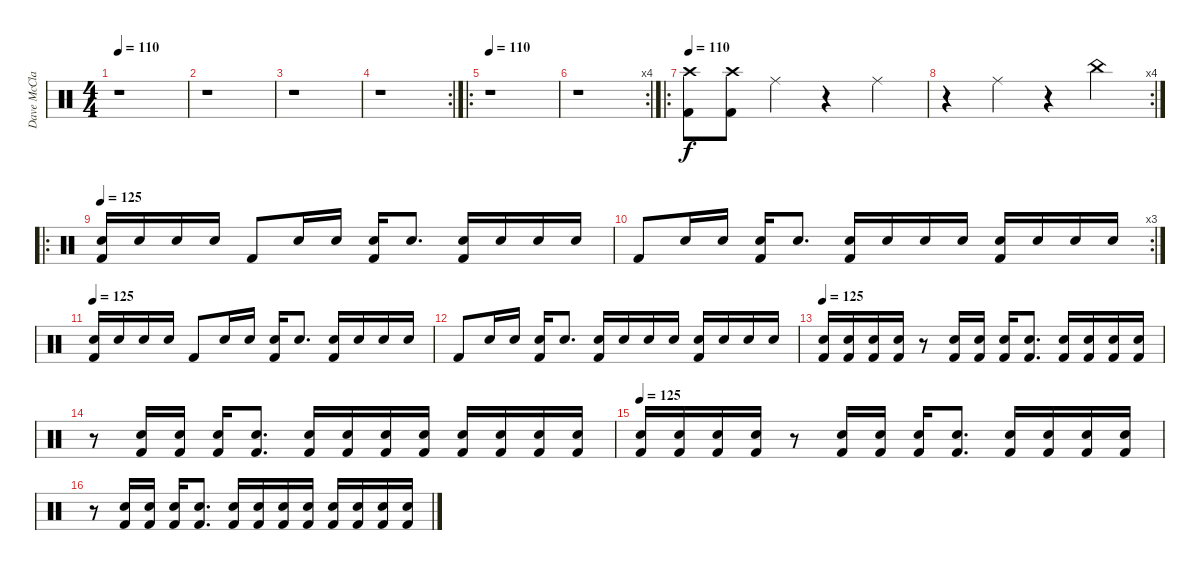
\track ("Dave McClain" "Dave McCla") {instrument percussion}
\staff {score}
\articulation defaults
\ts (4 4)
\tempo 110
\clef neutral
\ks c
r.1{dy f} |
r.1 |
r.1 |
\rc 2
r.1 |
\ro
\tempo 110
r.1 |
\rc 4
r.1 |
\ro
\tempo 110
("Crash high (hit)" "Kick (hit) 2").8 ("Crash high (hit)" "Kick (hit) 2").8 "Ride (middle)".4 r.4 "Ride (middle)".4 |
\rc 4
r.4 "Ride (middle)".4 r.4 "China (hit)".4 |
\ro
\tempo 125
("Kick (hit) 2" "Snare (hit) 2").16 "Snare (hit) 2".16 "Snare (hit) 2".16 "Snare (hit) 2".16 "Kick (hit) 2".8 "Snare (hit) 2".16 "Snare (hit) 2".16 ("Kick (hit) 2" "Snare (hit) 2").16 "Snare (hit) 2".8{d} ("Kick (hit) 2" "Snare (hit) 2").16 "Snare (hit) 2".16 "Snare (hit) 2".16 "Snare (hit) 2".16 |
\rc 3 "Kick (hit) 2".8 "Snare (hit) 2".16 "Snare (hit) 2".16
("Kick (hit) 2" "Snare (hit) 2").16 "Snare (hit) 2".8{d} ("Kick (hit) 2" "Snare (hit) 2").16 "Snare (hit) 2".16 "Snare (hit) 2".16 "Snare (hit) 2".16 ("Kick (hit) 2" "Snare (hit) 2").16 "Snare (hit) 2".16 "Snare (hit) 2".16 "Snare (hit) 2".16 |
\tempo 125
("Kick (hit) 2" "Snare (hit) 2").16 "Snare (hit) 2".16 "Snare (hit) 2".16 "Snare (hit) 2".16 "Kick (hit) 2".8 "Snare (hit) 2".16 "Snare (hit) 2".16 ("Kick (hit) 2" "Snare (hit) 2").16 "Snare (hit) 2".8{d} ("Kick (hit) 2" "Snare (hit) 2").16 "Snare (hit) 2".16 "Snare (hit) 2".16 "Snare (hit) 2".16 |
"Kick (hit) 2".8 "Snare (hit) 2".16 "Snare (hit) 2".16 ("Kick (hit) 2" "Snare (hit) 2").16 "Snare (hit) 2".8{d} ("Kick (hit) 2" "Snare (hit) 2").16 "Snare (hit) 2".16 "Snare (hit) 2".16 "Snare (hit) 2".16 ("Kick (hit) 2" "Snare (hit) 2").16 "Snare (hit) 2".16 "Snare (hit) 2".16 "Snare (hit) 2".16 |
\tempo 125
("Kick (hit) 2" "Snare (hit) 2").16 ("Kick (hit) 2" "Snare (hit) 2").16 ("Kick (hit) 2" "Snare (hit) 2").16 ("Kick (hit) 2" "Snare (hit) 2").16 r.8 ("Kick (hit) 2" "Snare (hit) 2").16 ("Kick (hit) 2" "Snare (hit) 2").16 ("Kick (hit) 2" "Snare (hit) 2").16 ("Kick (hit) 2" "Snare (hit) 2").8{d} ("Kick (hit) 2" "Snare (hit) 2").16 ("Kick (hit) 2" "Snare (hit) 2").16 ("Kick (hit) 2" "Snare (hit) 2").16 ("Kick (hit) 2" "Snare (hit) 2").16 |
r.8 ("Kick (hit) 2" "Snare (hit) 2").16 ("Kick (hit) 2" "Snare (hit) 2").16 ("Kick (hit) 2" "Snare (hit) 2").16 ("Kick (hit) 2" "Snare (hit) 2").8{d} ("Kick (hit) 2" "Snare (hit) 2").16 ("Kick (hit) 2" "Snare (hit) 2").16 ("Kick (hit) 2" "Snare (hit) 2").16 ("Kick (hit) 2" "Snare (hit) 2").16 ("Kick (hit) 2" "Snare (hit) 2").16 ("Kick (hit) 2" "Snare (hit) 2").16 ("Kick (hit) 2" "Snare (hit) 2").16 ("Kick (hit) 2" "Snare (hit) 2").16 |
\tempo 125
("Kick (hit) 2" "Snare (hit) 2").16 ("Kick (hit) 2" "Snare (hit) 2").16 ("Kick (hit) 2" "Snare (hit) 2").16 ("Kick (hit) 2" "Snare (hit) 2").16 r.8 ("Kick (hit) 2" "Snare (hit) 2").16 ("Kick (hit) 2" "Snare (hit) 2").16 ("Kick (hit) 2" "Snare (hit) 2").16 ("Kick (hit) 2" "Snare (hit) 2").8{d} ("Kick (hit) 2" "Snare (hit) 2").16 ("Kick (hit) 2" "Snare (hit) 2").16 ("Kick (hit) 2" "Snare (hit) 2").16 ("Kick (hit) 2" "Snare (hit) 2").16 |
r.8 ("Kick (hit) 2" "Snare (hit) 2").16 ("Kick (hit) 2" "Snare (hit) 2").16 ("Kick (hit) 2" "Snare (hit) 2").16 ("Kick (hit) 2" "Snare (hit) 2").8{d} ("Kick (hit) 2" "Snare (hit) 2").16 ("Kick (hit) 2" "Snare (hit) 2").16 ("Kick (hit) 2" "Snare (hit) 2").16 ("Kick (hit) 2" "Snare (hit) 2").16 ("Kick (hit) 2" "Snare (hit) 2").16 ("Kick (hit) 2" "Snare (hit) 2").16 ("Kick (hit) 2" "Snare (hit) 2").16 ("Kick (hit) 2" "Snare (hit) 2").16
